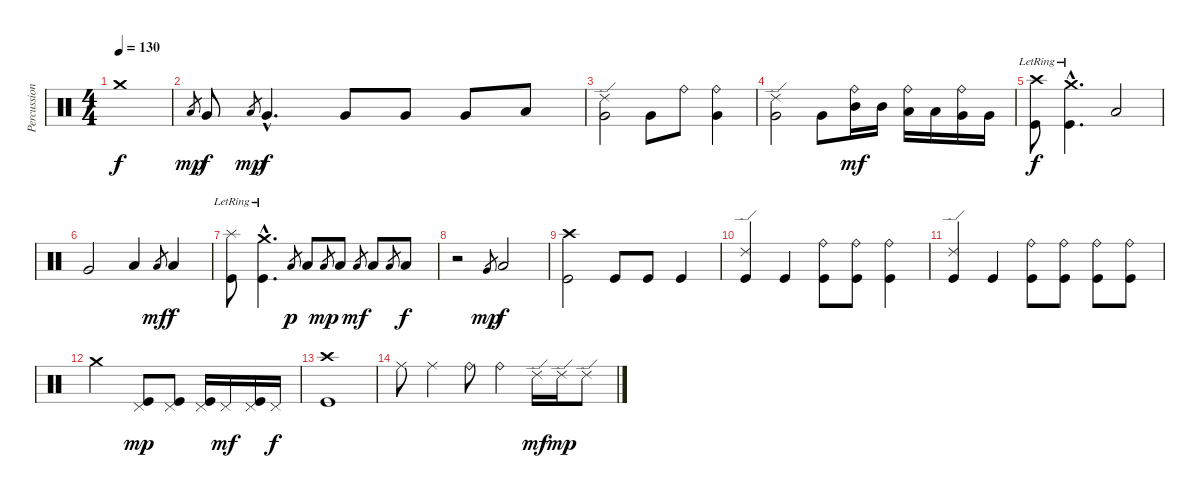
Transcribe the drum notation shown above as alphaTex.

\track ("Percussions" "Percussion") {instrument percussion}
\staff {score}
\articulation defaults
\ts (4 4)
\tempo 130
\clef neutral
\ks c "Crash medium (hit)".1{dy f}
|
"Low Floor Tom (hit)".8{gr dy mp} "Very Low Tom (hit)".8{dy f} "Low Floor Tom (hit)".8{gr dy mp} "Very Low Tom (hit)"{hac}.4{d dy f} "Very Low Tom (hit)".8 "Very Low Tom (hit)".8 "Very Low Tom (hit)".8 "Low Floor Tom (hit)".8 |
("Ride (edge) 2" "Very Low Tom (hit)").2 "Very Low Tom (hit)".8 "Ride (bell)".8 ("Ride (bell)" "Very Low Tom (hit)").4 |
("Ride (edge) 2" "Very Low Tom (hit)").2 "Very Low Tom (hit)".8 ("Mid Tom (hit)" "Ride (bell)").16{dy mf} "Mid Tom (hit)".16 ("Low Tom (hit)" "Ride (bell)").16 "Low Tom (hit)".16 ("Very Low Tom (hit)" "Ride (bell)").16 "Very Low Tom (hit)".16 |
("Crash high (hit)"{lr} "Kick (hit)").8{dy f} ("Crash medium (hit)"{hac lr} "Kick (hit)"{hac}).4{d} "Low Tom (hit)".2 |
"Very Low Tom (hit)".2 "Low Floor Tom (hit)".4 "Low Floor Tom (hit)".8{gr dy mf} "Low Floor Tom (hit)".4{dy f} |
("Splash (hit)"{lr} "Kick (hit)").8 ("Crash medium (hit)"{hac lr} "Kick (hit)"{hac}).4{d} "Low Floor Tom (hit)".8{gr dy p} "Low Floor Tom (hit)".8 "Low Floor Tom (hit)".8{gr dy mp} "Low Floor Tom (hit)".8 "Low Floor Tom (hit)".8{gr dy mf} "Low Floor Tom (hit)".8 "Low Floor Tom (hit)".8{gr} "Low Floor Tom (hit)".8{dy f} |
r.2 "Very Low Tom (hit)".8{gr dy mp} "Low Tom (hit)".2{dy f} |
("Crash high (hit)" "Kick (hit)").2 "Kick (hit)".8 "Kick (hit)".8 "Kick (hit)".4 |
("Ride (edge) 2" "Kick (hit)").4 "Kick (hit)".4 ("Ride (bell)" "Kick (hit)").8 ("Ride (bell)" "Kick (hit)").8 ("Ride (bell)" "Kick (hit)").4 |
("Ride (edge) 2" "Kick (hit)").4 "Kick (hit)".4 ("Ride (bell)" "Kick (hit)").8 ("Ride (bell)" "Kick (hit)").8 ("Ride (bell)" "Kick (hit)").8 ("Ride (bell)" "Kick (hit)").8 |
"Crash medium (hit)".2 ("Pedal Hi-Hat (hit)" "Kick (hit)").8{dy mp} ("Pedal Hi-Hat (hit)" "Kick (hit)").8 ("Pedal Hi-Hat (hit)" "Kick (hit)").16 "Pedal Hi-Hat (hit)".16{dy mf} ("Pedal Hi-Hat (hit)" "Kick (hit)").16 "Pedal Hi-Hat (hit)".16{dy f} |
("Crash high (hit)" "Kick (hit)").1 |
"Ride (middle)".8{balance 13} "Ride (middle)".4 "Ride (bell)".8{balance 4} "Ride (bell)".4 "Ride (edge) 2".16{dy mf balance 8} "Ride (edge) 2".16{dy mp} "Ride (edge) 2".8
